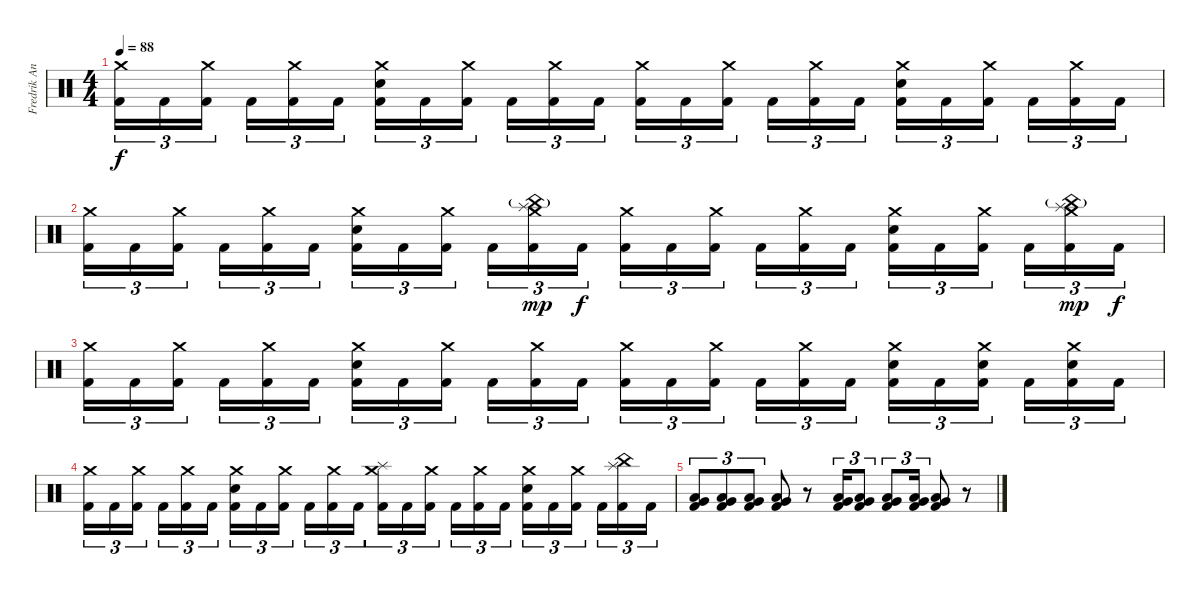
\track ("Fredrik Andersson" "Fredrik An") {instrument percussion}
\staff {score}
\articulation defaults
\ts (4 4)
\tempo 88
\clef neutral
\ks c
("Crash medium (hit)" "Kick (hit) 2").16{tu (3 2) dy f} "Kick (hit) 2".16{tu (3 2)} ("Crash medium (hit)" "Kick (hit) 2").16{tu (3 2)} "Kick (hit) 2".16{tu (3 2)} ("Crash medium (hit)" "Kick (hit) 2").16{tu (3 2)} "Kick (hit) 2".16{tu (3 2)} ("Crash medium (hit)" "Electric Snare (hit)" "Kick (hit) 2").16{tu (3 2)} "Kick (hit) 2".16{tu (3 2)} ("Crash medium (hit)" "Kick (hit) 2").16{tu (3 2)} "Kick (hit) 2".16{tu (3 2)} ("Crash medium (hit)" "Kick (hit) 2").16{tu (3 2)} "Kick (hit) 2".16{tu (3 2)} ("Crash medium (hit)" "Kick (hit) 2").16{tu (3 2)} "Kick (hit) 2".16{tu (3 2)} ("Crash medium (hit)" "Kick (hit) 2").16{tu (3 2)} "Kick (hit) 2".16{tu (3 2)} ("Crash medium (hit)" "Kick (hit) 2").16{tu (3 2)} "Kick (hit) 2".16{tu (3 2)} ("Crash medium (hit)" "Electric Snare (hit)" "Kick (hit) 2").16{tu (3 2)} "Kick (hit) 2".16{tu (3 2)} ("Crash medium (hit)" "Kick (hit) 2").16{tu (3 2)} "Kick (hit) 2".16{tu (3 2)} ("Crash medium (hit)" "Kick (hit) 2").16{tu (3 2)} "Kick (hit) 2".16{tu (3 2)} |
("Crash medium (hit)" "Kick (hit) 2").16{tu (3 2)} "Kick (hit) 2".16{tu (3 2)} ("Crash medium (hit)" "Kick (hit) 2").16{tu (3 2)} "Kick (hit) 2".16{tu (3 2)} ("Crash medium (hit)" "Kick (hit) 2").16{tu (3 2)} "Kick (hit) 2".16{tu (3 2)} ("Crash medium (hit)" "Electric Snare (hit)" "Kick (hit) 2").16{tu (3 2)} "Kick (hit) 2".16{tu (3 2)} ("Crash medium (hit)" "Kick (hit) 2").16{tu (3 2)} "Kick (hit) 2".16{tu (3 2)} ("Crash medium (hit)" "China (hit)"{g} "Splash (hit)" "Kick (hit) 2").16{tu (3 2) dy mp} "Kick (hit) 2".16{tu (3 2) dy f} ("Crash medium (hit)" "Kick (hit) 2").16{tu (3 2)} "Kick (hit) 2".16{tu (3 2)} ("Crash medium (hit)" "Kick (hit) 2").16{tu (3 2)} "Kick (hit) 2".16{tu (3 2)} ("Crash medium (hit)" "Kick (hit) 2").16{tu (3 2)} "Kick (hit) 2".16{tu (3 2)} ("Crash medium (hit)" "Electric Snare (hit)" "Kick (hit) 2").16{tu (3 2)} "Kick (hit) 2".16{tu (3 2)} ("Crash medium (hit)" "Kick (hit) 2").16{tu (3 2)} "Kick (hit) 2".16{tu (3 2)} ("China (hit)"{g} "Splash (hit)" "Crash medium (hit)" "Kick (hit) 2").16{tu (3 2) dy mp} "Kick (hit) 2".16{tu (3 2) dy f} |
("Crash medium (hit)" "Kick (hit) 2").16{tu (3 2)} "Kick (hit) 2".16{tu (3 2)} ("Crash medium (hit)" "Kick (hit) 2").16{tu (3 2)} "Kick (hit) 2".16{tu (3 2)} ("Crash medium (hit)" "Kick (hit) 2").16{tu (3 2)} "Kick (hit) 2".16{tu (3 2)} ("Crash medium (hit)" "Electric Snare (hit)" "Kick (hit) 2").16{tu (3 2)} "Kick (hit) 2".16{tu (3 2)} ("Crash medium (hit)" "Kick (hit) 2").16{tu (3 2)} "Kick (hit) 2".16{tu (3 2)} ("Crash medium (hit)" "Kick (hit) 2").16{tu (3 2)} "Kick (hit) 2".16{tu (3 2)} ("Crash medium (hit)" "Kick (hit) 2").16{tu (3 2)} "Kick (hit) 2".16{tu (3 2)} ("Crash medium (hit)" "Kick (hit) 2").16{tu (3 2)} "Kick (hit) 2".16{tu (3 2)} ("Crash medium (hit)" "Kick (hit) 2").16{tu (3 2)} "Kick (hit) 2".16{tu (3 2)} ("Crash medium (hit)" "Electric Snare (hit)" "Kick (hit) 2").16{tu (3 2)} "Kick (hit) 2".16{tu (3 2)} ("Crash medium (hit)" "Electric Snare (hit)" "Kick (hit) 2").16{tu (3 2)} "Kick (hit) 2".16{tu (3 2)} ("Crash medium (hit)" "Electric Snare (hit)" "Kick (hit) 2").16{tu (3 2)} "Kick (hit) 2".16{tu (3 2)} |
("Crash medium (hit)" "Kick (hit) 2").16{tu (3 2)} "Kick (hit) 2".16{tu (3 2)} ("Crash medium (hit)" "Kick (hit) 2").16{tu (3 2)} "Kick (hit) 2".16{tu (3 2)} ("Crash medium (hit)" "Kick (hit) 2").16{tu (3 2)} "Kick (hit) 2".16{tu (3 2)} ("Crash medium (hit)" "Electric Snare (hit)" "Kick (hit) 2").16{tu (3 2)} "Kick (hit) 2".16{tu (3 2)} ("Crash medium (hit)" "Kick (hit) 2").16{tu (3 2)} "Kick (hit) 2".16{tu (3 2)} ("Crash medium (hit)" "Kick (hit) 2").16{tu (3 2)} "Kick (hit) 2".16{tu (3 2)} ("Crash medium (hit)" "Splash (hit)" "Kick (hit) 2").16{tu (3 2)} "Kick (hit) 2".16{tu (3 2)} ("Crash medium (hit)" "Kick (hit) 2").16{tu (3 2)} "Kick (hit) 2".16{tu (3 2)} ("Crash medium (hit)" "Kick (hit) 2").16{tu (3 2)} "Kick (hit) 2".16{tu (3 2)} ("Crash medium (hit)" "Electric Snare (hit)" "Kick (hit) 2").16{tu (3 2)} "Kick (hit) 2".16{tu (3 2)} ("Crash medium (hit)" "Kick (hit) 2").16{tu (3 2)} "Kick (hit) 2".16{tu (3 2)} ("China (hit)" "Splash (hit)" "Kick (hit) 2").16{tu (3 2)} "Kick (hit) 2".16{tu (3 2)} |
("Low Tom (hit)" "Very Low Tom (hit)" "Kick (hit) 2").8{tu (3 2)} ("Low Tom (hit)" "Very Low Tom (hit)" "Kick (hit) 2").8{tu (3 2)} ("Low Tom (hit)" "Very Low Tom (hit)" "Kick (hit) 2").8{tu (3 2)} ("Low Tom (hit)" "Very Low Tom (hit)" "Kick (hit) 2").8 r.8 ("Low Tom (hit)" "Very Low Tom (hit)" "Kick (hit) 2").16{tu (3 2)} ("Low Tom (hit)" "Very Low Tom (hit)" "Kick (hit) 2").8{tu (3 2)} ("Low Tom (hit)" "Very Low Tom (hit)" "Kick (hit) 2").8{tu (3 2)} ("Low Tom (hit)" "Very Low Tom (hit)" "Kick (hit) 2").16{tu (3 2)} ("Low Tom (hit)" "Very Low Tom (hit)" "Kick (hit) 2").8 r.8
